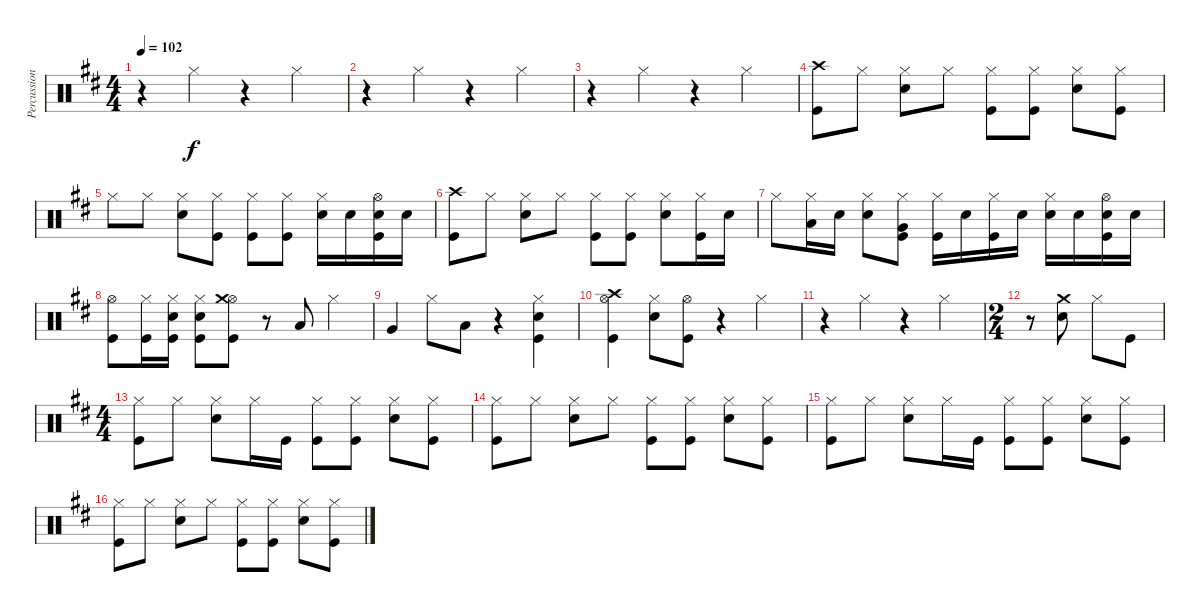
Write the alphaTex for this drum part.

\track ("Percussion" "Percussion") {instrument percussion}
\staff {score}
\articulation defaults
\ts (4 4)
\tempo 102
\clef neutral
\ks d
r.4{dy f} "Hi-Hat (closed)".4 r.4 "Hi-Hat (closed)".4 |
r.4 "Hi-Hat (closed)".4 r.4 "Hi-Hat (closed)".4 |
r.4 "Hi-Hat (closed)".4 r.4 "Hi-Hat (closed)".4 |
("Crash high (hit)" "Kick (hit)").8 "Hi-Hat (closed)".8 ("Hi-Hat (closed)" "Snare (hit) 2").8 "Hi-Hat (closed)".8 ("Hi-Hat (closed)" "Kick (hit)").8 ("Hi-Hat (closed)" "Kick (hit)").8 ("Hi-Hat (closed)" "Snare (hit) 2").8 ("Hi-Hat (closed)" "Kick (hit)").8 |
"Hi-Hat (closed)".8 "Hi-Hat (closed)".8 ("Hi-Hat (closed)" "Snare (hit) 2").8 ("Hi-Hat (closed)" "Kick (hit)").8 ("Hi-Hat (closed)" "Kick (hit)").8 ("Hi-Hat (closed)" "Kick (hit)").8 ("Hi-Hat (closed)" "Snare (hit) 2").16 "Snare (hit) 2".16 ("Hi-Hat (open)" "Snare (hit) 2" "Kick (hit)").16 "Snare (hit) 2".16 |
("Crash high (hit)" "Kick (hit)").8 "Hi-Hat (closed)".8 ("Hi-Hat (closed)" "Snare (hit) 2").8 "Hi-Hat (closed)".8 ("Hi-Hat (closed)" "Kick (hit)").8 ("Hi-Hat (closed)" "Kick (hit)").8 ("Hi-Hat (closed)" "Snare (hit) 2").8 ("Hi-Hat (closed)" "Kick (hit)").16 "Snare (hit) 2".16 |
"Hi-Hat (closed)".8 ("Hi-Hat (closed)" "Low Tom (hit)").16 "Snare (hit) 2".16 ("Hi-Hat (closed)" "Snare (hit) 2").8 ("Hi-Hat (closed)" "Very Low Tom (hit)" "Kick (hit)").8 ("Hi-Hat (closed)" "Kick (hit)").16 "Snare (hit) 2".16 ("Hi-Hat (closed)" "Kick (hit)").16 "Snare (hit) 2".16 ("Hi-Hat (closed)" "Snare (hit) 2").16 "Snare (hit) 2".16 ("Hi-Hat (open)" "Snare (hit) 2" "Kick (hit)").16 "Snare (hit) 2".16 |
("Hi-Hat (open)" "Kick (hit)").8 ("Hi-Hat (closed)" "Kick (hit)").16 ("Hi-Hat (closed)" "Snare (hit) 2" "Kick (hit)").16 ("Hi-Hat (closed)" "Snare (hit) 2" "Kick (hit)").8 ("Hi-Hat (open)" "Crash medium (hit)" "Kick (hit)").8 r.8 "Low Tom (hit)".8 "Hi-Hat (closed)".4 |
"Very Low Tom (hit)".4 "Hi-Hat (closed)".8 "Low Floor Tom (hit)".8 r.4 ("Hi-Hat (closed)" "Snare (hit) 2" "Kick (hit)").4 |
("Hi-Hat (open)" "Crash high (hit)" "Kick (hit)").4 ("Hi-Hat (closed)" "Snare (hit) 2").8 ("Hi-Hat (open)" "Kick (hit)").8 r.4 "Hi-Hat (closed)".4 |
r.4 "Hi-Hat (closed)".4 r.4 "Hi-Hat (closed)".4 |
\ts (2 4)
r.8 ("Crash medium (hit)" "Snare (hit) 2").8 "Hi-Hat (closed)".8 "Kick (hit)".8 |
\ts (4 4)
("Hi-Hat (closed)" "Kick (hit)").8 "Hi-Hat (closed)".8 ("Hi-Hat (closed)" "Snare (hit) 2").8 "Hi-Hat (closed)".16 "Kick (hit)".16 ("Hi-Hat (closed)" "Kick (hit)").8 ("Hi-Hat (closed)" "Kick (hit)").8 ("Hi-Hat (closed)" "Snare (hit) 2").8 ("Hi-Hat (closed)" "Kick (hit)").8 |
("Hi-Hat (closed)" "Kick (hit)").8 "Hi-Hat (closed)".8 ("Hi-Hat (closed)" "Snare (hit) 2").8 "Hi-Hat (closed)".8 ("Hi-Hat (closed)" "Kick (hit)").8 ("Hi-Hat (closed)" "Kick (hit)").8 ("Hi-Hat (closed)" "Snare (hit) 2").8 ("Hi-Hat (closed)" "Kick (hit)").8 |
("Hi-Hat (closed)" "Kick (hit)").8 "Hi-Hat (closed)".8 ("Hi-Hat (closed)" "Snare (hit) 2").8 "Hi-Hat (closed)".16 "Kick (hit)".16 ("Hi-Hat (closed)" "Kick (hit)").8 ("Hi-Hat (closed)" "Kick (hit)").8 ("Hi-Hat (closed)" "Snare (hit) 2").8 ("Hi-Hat (closed)" "Kick (hit)").8 |
("Hi-Hat (closed)" "Kick (hit)").8 "Hi-Hat (closed)".8 ("Hi-Hat (closed)" "Snare (hit) 2").8 "Hi-Hat (closed)".8 ("Hi-Hat (closed)" "Kick (hit)").8 ("Hi-Hat (closed)" "Kick (hit)").8 ("Hi-Hat (closed)" "Snare (hit) 2").8 ("Hi-Hat (closed)" "Kick (hit)").8
